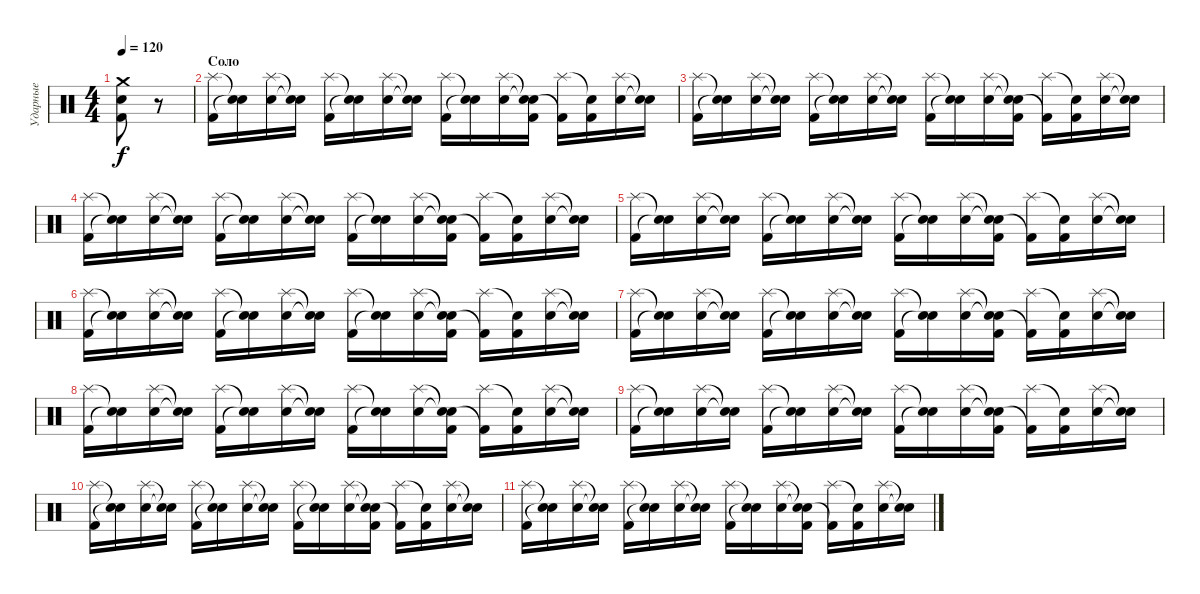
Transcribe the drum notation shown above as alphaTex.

\track ("Ударные" "Ударные") {instrument percussion}
\staff {score}
\articulation defaults
\ts (4 4)
\tempo 120
\clef neutral
\ks c
("Crash medium (hit)" "Electric Snare (hit)" "Kick (hit) 2").8{dy f} r.8 |
\section ("" "Соло")
("Splash (hit)" "Kick (hit) 2").16 ("Snare (hit)"{t} "Snare (hit)"{t}).16 ("Splash (hit)" "Electric Snare (hit)").16 ("Snare (hit)"{t} "Snare (hit)"{t}).16 ("Splash (hit)" "Kick (hit) 2").16 ("Snare (hit)"{t} "Snare (hit)"{t}).16 ("Splash (hit)" "Electric Snare (hit)").16 ("Snare (hit)"{t} "Snare (hit)"{t}).16 ("Splash (hit)" "Kick (hit) 2").16 ("Snare (hit)"{t} "Snare (hit)"{t}).16 ("Splash (hit)" "Electric Snare (hit)").16 ("Snare (hit)"{t} "Snare (hit)"{t} "Kick (hit) 2").16 ("Splash (hit)" "Kick (hit) 2"{t}).16 ("Snare (hit)"{t} "Kick (hit) 2").16 ("Splash (hit)" "Electric Snare (hit)").16 ("Snare (hit)"{t} "Snare (hit)"{t}).16 |
("Splash (hit)" "Kick (hit) 2").16 ("Snare (hit)"{t} "Snare (hit)"{t}).16 ("Splash (hit)" "Electric Snare (hit)").16 ("Snare (hit)"{t} "Snare (hit)"{t}).16 ("Splash (hit)" "Kick (hit) 2").16 ("Snare (hit)"{t} "Snare (hit)"{t}).16 ("Splash (hit)" "Electric Snare (hit)").16 ("Snare (hit)"{t} "Snare (hit)"{t}).16 ("Splash (hit)" "Kick (hit) 2").16 ("Snare (hit)"{t} "Snare (hit)"{t}).16 ("Splash (hit)" "Electric Snare (hit)").16 ("Snare (hit)"{t} "Snare (hit)"{t} "Kick (hit) 2").16 ("Splash (hit)" "Kick (hit) 2"{t}).16 ("Snare (hit)"{t} "Kick (hit) 2").16 ("Splash (hit)" "Electric Snare (hit)").16 ("Snare (hit)"{t} "Snare (hit)"{t}).16 |
("Splash (hit)" "Kick (hit) 2").16 ("Snare (hit)"{t} "Snare (hit)"{t}).16 ("Splash (hit)" "Electric Snare (hit)").16 ("Snare (hit)"{t} "Snare (hit)"{t}).16 ("Splash (hit)" "Kick (hit) 2").16 ("Snare (hit)"{t} "Snare (hit)"{t}).16 ("Splash (hit)" "Electric Snare (hit)").16 ("Snare (hit)"{t} "Snare (hit)"{t}).16 ("Splash (hit)" "Kick (hit) 2").16 ("Snare (hit)"{t} "Snare (hit)"{t}).16 ("Splash (hit)" "Electric Snare (hit)").16 ("Snare (hit)"{t} "Snare (hit)"{t} "Kick (hit) 2").16 ("Splash (hit)" "Kick (hit) 2"{t}).16 ("Snare (hit)"{t} "Kick (hit) 2").16 ("Splash (hit)" "Electric Snare (hit)").16 ("Snare (hit)"{t} "Snare (hit)"{t}).16 |
("Splash (hit)" "Kick (hit) 2").16 ("Snare (hit)"{t} "Snare (hit)"{t}).16 ("Splash (hit)" "Electric Snare (hit)").16 ("Snare (hit)"{t} "Snare (hit)"{t}).16 ("Splash (hit)" "Kick (hit) 2").16 ("Snare (hit)"{t} "Snare (hit)"{t}).16 ("Splash (hit)" "Electric Snare (hit)").16 ("Snare (hit)"{t} "Snare (hit)"{t}).16 ("Splash (hit)" "Kick (hit) 2").16 ("Snare (hit)"{t} "Snare (hit)"{t}).16 ("Splash (hit)" "Electric Snare (hit)").16 ("Snare (hit)"{t} "Snare (hit)"{t} "Kick (hit) 2").16 ("Splash (hit)" "Kick (hit) 2"{t}).16 ("Snare (hit)"{t} "Kick (hit) 2").16 ("Splash (hit)" "Electric Snare (hit)").16 ("Snare (hit)"{t} "Snare (hit)"{t}).16 |
("Splash (hit)" "Kick (hit) 2").16 ("Snare (hit)"{t} "Snare (hit)"{t}).16 ("Splash (hit)" "Electric Snare (hit)").16 ("Snare (hit)"{t} "Snare (hit)"{t}).16 ("Splash (hit)" "Kick (hit) 2").16 ("Snare (hit)"{t} "Snare (hit)"{t}).16 ("Splash (hit)" "Electric Snare (hit)").16 ("Snare (hit)"{t} "Snare (hit)"{t}).16 ("Splash (hit)" "Kick (hit) 2").16 ("Snare (hit)"{t} "Snare (hit)"{t}).16 ("Splash (hit)" "Electric Snare (hit)").16 ("Snare (hit)"{t} "Snare (hit)"{t} "Kick (hit) 2").16 ("Splash (hit)" "Kick (hit) 2"{t}).16 ("Snare (hit)"{t} "Kick (hit) 2").16 ("Splash (hit)" "Electric Snare (hit)").16 ("Snare (hit)"{t} "Snare (hit)"{t}).16 |
("Splash (hit)" "Kick (hit) 2").16 ("Snare (hit)"{t} "Snare (hit)"{t}).16 ("Splash (hit)" "Electric Snare (hit)").16 ("Snare (hit)"{t} "Snare (hit)"{t}).16 ("Splash (hit)" "Kick (hit) 2").16 ("Snare (hit)"{t} "Snare (hit)"{t}).16 ("Splash (hit)" "Electric Snare (hit)").16 ("Snare (hit)"{t} "Snare (hit)"{t}).16 ("Splash (hit)" "Kick (hit) 2").16 ("Snare (hit)"{t} "Snare (hit)"{t}).16 ("Splash (hit)" "Electric Snare (hit)").16 ("Snare (hit)"{t} "Snare (hit)"{t} "Kick (hit) 2").16 ("Splash (hit)" "Kick (hit) 2"{t}).16 ("Snare (hit)"{t} "Kick (hit) 2").16 ("Splash (hit)" "Electric Snare (hit)").16 ("Snare (hit)"{t} "Snare (hit)"{t}).16 |
("Splash (hit)" "Kick (hit) 2").16 ("Snare (hit)"{t} "Snare (hit)"{t}).16 ("Splash (hit)" "Electric Snare (hit)").16 ("Snare (hit)"{t} "Snare (hit)"{t}).16 ("Splash (hit)" "Kick (hit) 2").16 ("Snare (hit)"{t} "Snare (hit)"{t}).16 ("Splash (hit)" "Electric Snare (hit)").16 ("Snare (hit)"{t} "Snare (hit)"{t}).16 ("Splash (hit)" "Kick (hit) 2").16 ("Snare (hit)"{t} "Snare (hit)"{t}).16 ("Splash (hit)" "Electric Snare (hit)").16 ("Snare (hit)"{t} "Snare (hit)"{t} "Kick (hit) 2").16 ("Splash (hit)" "Kick (hit) 2"{t}).16 ("Snare (hit)"{t} "Kick (hit) 2").16 ("Splash (hit)" "Electric Snare (hit)").16 ("Snare (hit)"{t} "Snare (hit)"{t}).16 |
("Splash (hit)" "Kick (hit) 2").16 ("Snare (hit)"{t} "Snare (hit)"{t}).16 ("Splash (hit)" "Electric Snare (hit)").16 ("Snare (hit)"{t} "Snare (hit)"{t}).16 ("Splash (hit)" "Kick (hit) 2").16 ("Snare (hit)"{t} "Snare (hit)"{t}).16 ("Splash (hit)" "Electric Snare (hit)").16 ("Snare (hit)"{t} "Snare (hit)"{t}).16 ("Splash (hit)" "Kick (hit) 2").16 ("Snare (hit)"{t} "Snare (hit)"{t}).16 ("Splash (hit)" "Electric Snare (hit)").16 ("Snare (hit)"{t} "Snare (hit)"{t} "Kick (hit) 2").16 ("Splash (hit)" "Kick (hit) 2"{t}).16 ("Snare (hit)"{t} "Kick (hit) 2").16 ("Splash (hit)" "Electric Snare (hit)").16 ("Snare (hit)"{t} "Snare (hit)"{t}).16 |
("Splash (hit)" "Kick (hit) 2").16 ("Snare (hit)"{t} "Snare (hit)"{t}).16 ("Splash (hit)" "Electric Snare (hit)").16 ("Snare (hit)"{t} "Snare (hit)"{t}).16 ("Splash (hit)" "Kick (hit) 2").16 ("Snare (hit)"{t} "Snare (hit)"{t}).16 ("Splash (hit)" "Electric Snare (hit)").16 ("Snare (hit)"{t} "Snare (hit)"{t}).16 ("Splash (hit)" "Kick (hit) 2").16 ("Snare (hit)"{t} "Snare (hit)"{t}).16 ("Splash (hit)" "Electric Snare (hit)").16 ("Snare (hit)"{t} "Snare (hit)"{t} "Kick (hit) 2").16 ("Splash (hit)" "Kick (hit) 2"{t}).16 ("Snare (hit)"{t} "Kick (hit) 2").16 ("Splash (hit)" "Electric Snare (hit)").16 ("Snare (hit)"{t} "Snare (hit)"{t}).16 |
("Splash (hit)" "Kick (hit) 2").16 ("Snare (hit)"{t} "Snare (hit)"{t}).16 ("Splash (hit)" "Electric Snare (hit)").16 ("Snare (hit)"{t} "Snare (hit)"{t}).16 ("Splash (hit)" "Kick (hit) 2").16 ("Snare (hit)"{t} "Snare (hit)"{t}).16 ("Splash (hit)" "Electric Snare (hit)").16 ("Snare (hit)"{t} "Snare (hit)"{t}).16 ("Splash (hit)" "Kick (hit) 2").16 ("Snare (hit)"{t} "Snare (hit)"{t}).16 ("Splash (hit)" "Electric Snare (hit)").16 ("Snare (hit)"{t} "Snare (hit)"{t} "Kick (hit) 2").16 ("Splash (hit)" "Kick (hit) 2"{t}).16 ("Snare (hit)"{t} "Kick (hit) 2").16 ("Splash (hit)" "Electric Snare (hit)").16 ("Snare (hit)"{t} "Snare (hit)"{t}).16
